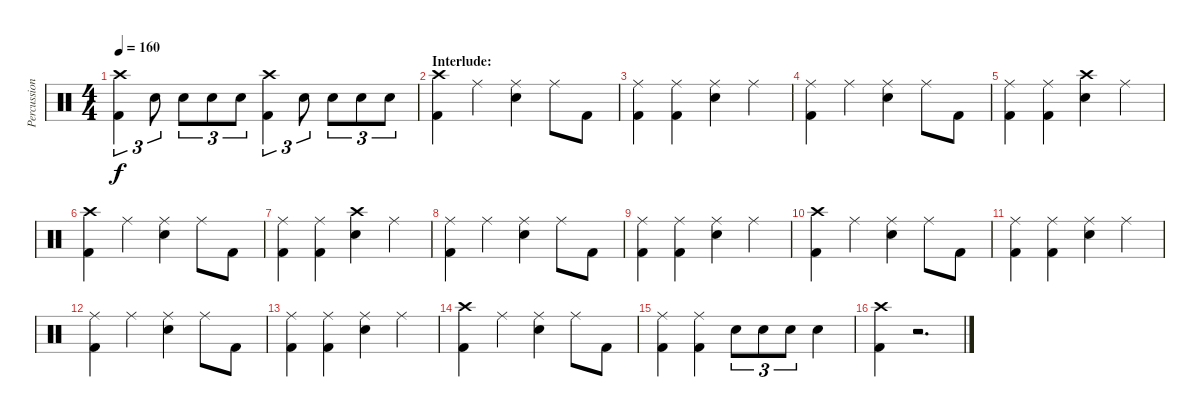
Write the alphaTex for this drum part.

\track ("Percussion" "Percussion") {instrument percussion}
\staff {score}
\articulation defaults
\ts (4 4)
\tempo 160
\clef neutral
\ks c
("Crash high (hit)" "Kick (hit) 2").4{tu (3 2) dy f} "Electric Snare (hit)".8{tu (3 2)} "Electric Snare (hit)".8{tu (3 2)} "Electric Snare (hit)".8{tu (3 2)} "Electric Snare (hit)".8{tu (3 2)} ("Crash high (hit)" "Kick (hit) 2").4{tu (3 2)} "Electric Snare (hit)".8{tu (3 2)} "Electric Snare (hit)".8{tu (3 2)} "Electric Snare (hit)".8{tu (3 2)} "Electric Snare (hit)".8{tu (3 2)} |
\section ("" "Interlude:")
("Crash high (hit)" "Kick (hit) 2").4 "Ride (middle)".4 ("Ride (middle)" "Electric Snare (hit)").4 "Ride (middle)".8 "Kick (hit) 2".8 |
("Ride (middle)" "Kick (hit) 2").4 ("Ride (middle)" "Kick (hit) 2").4 ("Ride (middle)" "Electric Snare (hit)").4 "Ride (middle)".4 |
("Ride (middle)" "Kick (hit) 2").4 "Ride (middle)".4 ("Ride (middle)" "Electric Snare (hit)").4 "Ride (middle)".8 "Kick (hit) 2".8 |
("Ride (middle)" "Kick (hit) 2").4 ("Ride (middle)" "Kick (hit) 2").4 ("Crash high (hit)" "Electric Snare (hit)").4 "Ride (middle)".4 |
("Crash high (hit)" "Kick (hit) 2").4 "Ride (middle)".4 ("Ride (middle)" "Electric Snare (hit)").4 "Ride (middle)".8 "Kick (hit) 2".8 |
("Ride (middle)" "Kick (hit) 2").4 ("Ride (middle)" "Kick (hit) 2").4 ("Crash high (hit)" "Electric Snare (hit)").4 "Ride (middle)".4 |
("Ride (middle)" "Kick (hit) 2").4 "Ride (middle)".4 ("Ride (middle)" "Electric Snare (hit)").4 "Ride (middle)".8 "Kick (hit) 2".8 |
("Ride (middle)" "Kick (hit) 2").4 ("Ride (middle)" "Kick (hit) 2").4 ("Ride (middle)" "Electric Snare (hit)").4 "Ride (middle)".4 |
("Crash high (hit)" "Kick (hit) 2").4 "Ride (middle)".4 ("Ride (middle)" "Electric Snare (hit)").4 "Ride (middle)".8 "Kick (hit) 2".8 |
("Ride (middle)" "Kick (hit) 2").4 ("Ride (middle)" "Kick (hit) 2").4 ("Ride (middle)" "Electric Snare (hit)").4 "Ride (middle)".4 |
("Ride (middle)" "Kick (hit) 2").4 "Ride (middle)".4 ("Ride (middle)" "Electric Snare (hit)").4 "Ride (middle)".8 "Kick (hit) 2".8 |
("Ride (middle)" "Kick (hit) 2").4 ("Ride (middle)" "Kick (hit) 2").4 ("Ride (middle)" "Electric Snare (hit)").4 "Ride (middle)".4 |
("Crash high (hit)" "Kick (hit) 2").4 "Ride (middle)".4 ("Ride (middle)" "Electric Snare (hit)").4 "Ride (middle)".8 "Kick (hit) 2".8 |
("Ride (middle)" "Kick (hit) 2").4 ("Ride (middle)" "Kick (hit) 2").4 "Electric Snare (hit)".8{tu (3 2)} "Electric Snare (hit)".8{tu (3 2)} "Electric Snare (hit)".8{tu (3 2)} "Electric Snare (hit)".4 |
("Crash high (hit)" "Kick (hit) 2").4 r.2{d}
